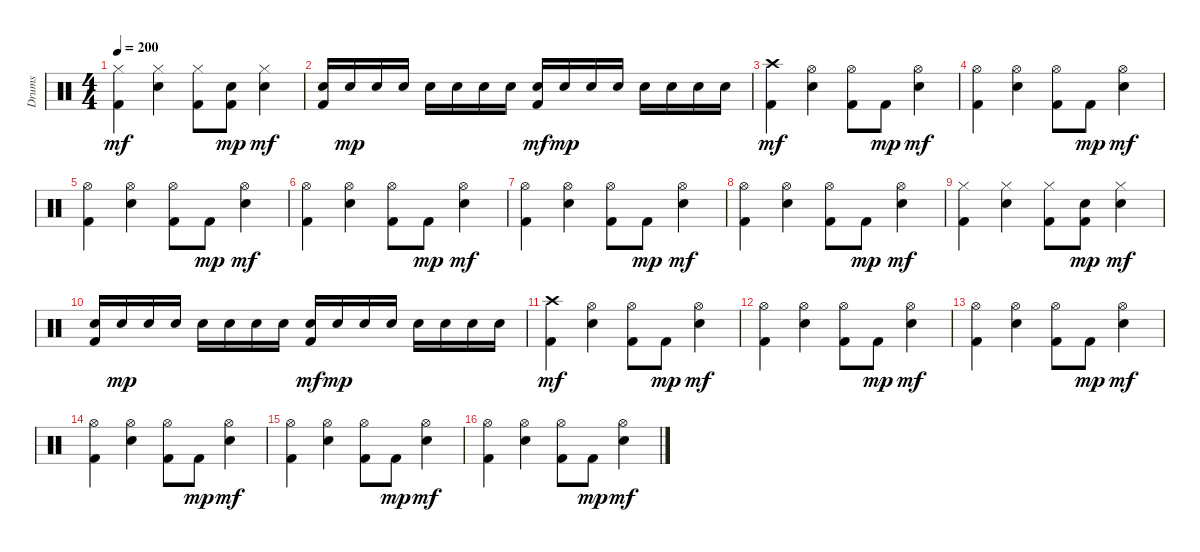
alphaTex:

\track ("Drums" "Drums") {instrument percussion}
\staff {score}
\articulation defaults
\ts (4 4)
\tempo 200
\clef neutral
\ks c
("Hi-Hat (closed)" "Kick (hit) 2").4{dy mf} ("Snare (hit) 2" "Hi-Hat (closed)").4 ("Hi-Hat (closed)" "Kick (hit) 2").8 ("Snare (hit) 2" "Kick (hit) 2").8{dy mp} ("Snare (hit) 2" "Hi-Hat (closed)").4{dy mf} |
("Snare (hit) 2" "Kick (hit) 2").16 "Snare (hit) 2".16{dy mp} "Snare (hit) 2".16 "Snare (hit) 2".16 "Snare (hit) 2".16 "Snare (hit) 2".16 "Snare (hit) 2".16 "Snare (hit) 2".16 ("Snare (hit) 2" "Kick (hit) 2").16{dy mf} "Snare (hit) 2".16{dy mp} "Snare (hit) 2".16 "Snare (hit) 2".16 "Snare (hit) 2".16 "Snare (hit) 2".16 "Snare (hit) 2".16 "Snare (hit) 2".16 |
("Crash high (hit)" "Kick (hit) 2").4{dy mf} ("Snare (hit) 2" "Hi-Hat (open)").4 ("Hi-Hat (open)" "Kick (hit) 2").8 "Kick (hit) 2".8{dy mp} ("Snare (hit) 2" "Hi-Hat (open)").4{dy mf} |
("Hi-Hat (open)" "Kick (hit) 2").4 ("Snare (hit) 2" "Hi-Hat (open)").4 ("Hi-Hat (open)" "Kick (hit) 2").8 "Kick (hit) 2".8{dy mp} ("Snare (hit) 2" "Hi-Hat (open)").4{dy mf} |
("Hi-Hat (open)" "Kick (hit) 2").4 ("Snare (hit) 2" "Hi-Hat (open)").4 ("Hi-Hat (open)" "Kick (hit) 2").8 "Kick (hit) 2".8{dy mp} ("Snare (hit) 2" "Hi-Hat (open)").4{dy mf} |
("Hi-Hat (open)" "Kick (hit) 2").4 ("Snare (hit) 2" "Hi-Hat (open)").4 ("Hi-Hat (open)" "Kick (hit) 2").8 "Kick (hit) 2".8{dy mp} ("Snare (hit) 2" "Hi-Hat (open)").4{dy mf} |
("Hi-Hat (open)" "Kick (hit) 2").4 ("Snare (hit) 2" "Hi-Hat (open)").4 ("Hi-Hat (open)" "Kick (hit) 2").8 "Kick (hit) 2".8{dy mp} ("Snare (hit) 2" "Hi-Hat (open)").4{dy mf} |
("Hi-Hat (open)" "Kick (hit) 2").4 ("Snare (hit) 2" "Hi-Hat (open)").4 ("Hi-Hat (open)" "Kick (hit) 2").8 "Kick (hit) 2".8{dy mp} ("Snare (hit) 2" "Hi-Hat (open)").4{dy mf} |
("Hi-Hat (closed)" "Kick (hit) 2").4 ("Snare (hit) 2" "Hi-Hat (closed)").4 ("Hi-Hat (closed)" "Kick (hit) 2").8 ("Snare (hit) 2" "Kick (hit) 2").8{dy mp} ("Snare (hit) 2" "Hi-Hat (closed)").4{dy mf} |
("Snare (hit) 2" "Kick (hit) 2").16 "Snare (hit) 2".16{dy mp} "Snare (hit) 2".16 "Snare (hit) 2".16 "Snare (hit) 2".16 "Snare (hit) 2".16 "Snare (hit) 2".16 "Snare (hit) 2".16 ("Snare (hit) 2" "Kick (hit) 2").16{dy mf} "Snare (hit) 2".16{dy mp} "Snare (hit) 2".16 "Snare (hit) 2".16 "Snare (hit) 2".16 "Snare (hit) 2".16 "Snare (hit) 2".16 "Snare (hit) 2".16 |
("Crash high (hit)" "Kick (hit) 2").4{dy mf} ("Snare (hit) 2" "Hi-Hat (open)").4 ("Hi-Hat (open)" "Kick (hit) 2").8 "Kick (hit) 2".8{dy mp} ("Snare (hit) 2" "Hi-Hat (open)").4{dy mf} |
("Hi-Hat (open)" "Kick (hit) 2").4 ("Snare (hit) 2" "Hi-Hat (open)").4 ("Hi-Hat (open)" "Kick (hit) 2").8 "Kick (hit) 2".8{dy mp} ("Snare (hit) 2" "Hi-Hat (open)").4{dy mf} |
("Hi-Hat (open)" "Kick (hit) 2").4 ("Snare (hit) 2" "Hi-Hat (open)").4 ("Hi-Hat (open)" "Kick (hit) 2").8 "Kick (hit) 2".8{dy mp} ("Snare (hit) 2" "Hi-Hat (open)").4{dy mf} |
("Hi-Hat (open)" "Kick (hit) 2").4 ("Snare (hit) 2" "Hi-Hat (open)").4 ("Hi-Hat (open)" "Kick (hit) 2").8 "Kick (hit) 2".8{dy mp} ("Snare (hit) 2" "Hi-Hat (open)").4{dy mf} |
("Hi-Hat (open)" "Kick (hit) 2").4 ("Snare (hit) 2" "Hi-Hat (open)").4 ("Hi-Hat (open)" "Kick (hit) 2").8 "Kick (hit) 2".8{dy mp} ("Snare (hit) 2" "Hi-Hat (open)").4{dy mf} |
("Hi-Hat (open)" "Kick (hit) 2").4 ("Snare (hit) 2" "Hi-Hat (open)").4 ("Hi-Hat (open)" "Kick (hit) 2").8 "Kick (hit) 2".8{dy mp} ("Snare (hit) 2" "Hi-Hat (open)").4{dy mf}
